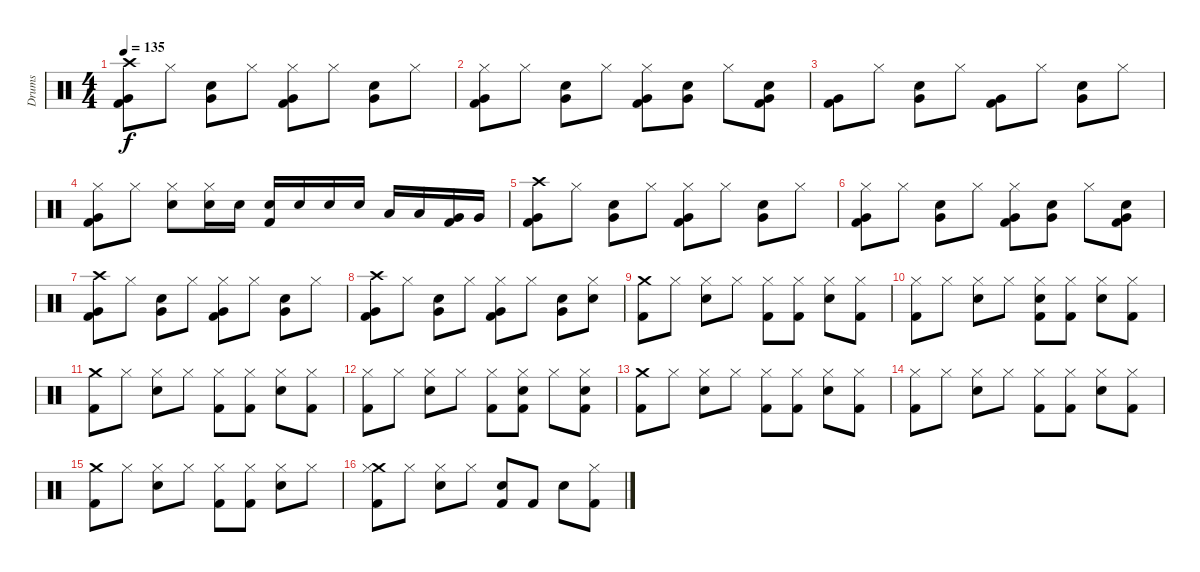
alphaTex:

\track ("Drums" "Drums") {instrument percussion}
\staff {score}
\articulation defaults
\ts (4 4)
\tempo 135
\clef neutral
\ks c
("Crash high (hit)" "Very Low Tom (hit)" "Kick (hit) 2").8{dy f} "Hi-Hat (closed)".8 ("Very Low Tom (hit)" "Snare (hit) 2").8 "Hi-Hat (closed)".8 ("Hi-Hat (closed)" "Very Low Tom (hit)" "Kick (hit) 2").8 "Hi-Hat (closed)".8 ("Very Low Tom (hit)" "Snare (hit) 2").8 "Hi-Hat (closed)".8 |
("Hi-Hat (closed)" "Very Low Tom (hit)" "Kick (hit) 2").8 "Hi-Hat (closed)".8 ("Very Low Tom (hit)" "Snare (hit) 2").8 "Hi-Hat (closed)".8 ("Hi-Hat (closed)" "Very Low Tom (hit)" "Kick (hit) 2").8 ("Very Low Tom (hit)" "Snare (hit) 2").8 "Hi-Hat (closed)".8 ("Very Low Tom (hit)" "Snare (hit) 2" "Kick (hit) 2").8 |
("Very Low Tom (hit)" "Kick (hit) 2").8 "Hi-Hat (closed)".8 ("Very Low Tom (hit)" "Snare (hit) 2").8 "Hi-Hat (closed)".8 ("Very Low Tom (hit)" "Kick (hit) 2").8 "Hi-Hat (closed)".8 ("Very Low Tom (hit)" "Snare (hit) 2").8 "Hi-Hat (closed)".8 |
("Hi-Hat (closed)" "Very Low Tom (hit)" "Kick (hit) 2").8 "Hi-Hat (closed)".8 ("Hi-Hat (closed)" "Snare (hit) 2").8 ("Hi-Hat (closed)" "Snare (hit) 2").16 "Snare (hit) 2".16 ("Snare (hit) 2" "Kick (hit) 2").16 "Snare (hit) 2".16 "Snare (hit) 2".16 "Snare (hit) 2".16 "Low Tom (hit)".16 "Low Tom (hit)".16 ("Very Low Tom (hit)" "Kick (hit) 2").16 "Very Low Tom (hit)".16 |
("Crash high (hit)" "Very Low Tom (hit)" "Kick (hit) 2").8 "Hi-Hat (closed)".8 ("Very Low Tom (hit)" "Snare (hit) 2").8 "Hi-Hat (closed)".8 ("Hi-Hat (closed)" "Very Low Tom (hit)" "Kick (hit) 2").8 "Hi-Hat (closed)".8 ("Very Low Tom (hit)" "Snare (hit) 2").8 "Hi-Hat (closed)".8 |
("Hi-Hat (closed)" "Very Low Tom (hit)" "Kick (hit) 2").8 "Hi-Hat (closed)".8 ("Very Low Tom (hit)" "Snare (hit) 2").8 "Hi-Hat (closed)".8 ("Hi-Hat (closed)" "Very Low Tom (hit)" "Kick (hit) 2").8 ("Very Low Tom (hit)" "Snare (hit) 2").8 "Hi-Hat (closed)".8 ("Very Low Tom (hit)" "Snare (hit) 2" "Kick (hit) 2").8 |
("Crash high (hit)" "Very Low Tom (hit)" "Kick (hit) 2").8 "Hi-Hat (closed)".8 ("Very Low Tom (hit)" "Snare (hit) 2").8 "Hi-Hat (closed)".8 ("Hi-Hat (closed)" "Very Low Tom (hit)" "Kick (hit) 2").8 "Hi-Hat (closed)".8 ("Very Low Tom (hit)" "Snare (hit) 2").8 "Hi-Hat (closed)".8 |
("Crash high (hit)" "Very Low Tom (hit)" "Kick (hit) 2").8 "Hi-Hat (closed)".8 ("Very Low Tom (hit)" "Snare (hit) 2").8 "Hi-Hat (closed)".8 ("Hi-Hat (closed)" "Very Low Tom (hit)" "Kick (hit) 2").8 "Hi-Hat (closed)".8 ("Very Low Tom (hit)" "Snare (hit) 2").8 ("Hi-Hat (closed)" "Snare (hit) 2").8 |
("Crash medium (hit)" "Kick (hit) 2").8 "Hi-Hat (closed)".8 ("Hi-Hat (closed)" "Snare (hit) 2").8 "Hi-Hat (closed)".8 ("Hi-Hat (closed)" "Kick (hit) 2").8 ("Hi-Hat (closed)" "Kick (hit) 2").8 ("Hi-Hat (closed)" "Snare (hit) 2").8 ("Hi-Hat (closed)" "Kick (hit) 2").8 |
("Hi-Hat (closed)" "Kick (hit) 2").8 "Hi-Hat (closed)".8 ("Hi-Hat (closed)" "Snare (hit) 2").8 "Hi-Hat (closed)".8 ("Hi-Hat (closed)" "Snare (hit) 2" "Kick (hit) 2").8 ("Hi-Hat (closed)" "Kick (hit) 2").8 ("Hi-Hat (closed)" "Snare (hit) 2").8 ("Hi-Hat (closed)" "Kick (hit) 2").8 |
("Crash medium (hit)" "Kick (hit) 2").8 "Hi-Hat (closed)".8 ("Hi-Hat (closed)" "Snare (hit) 2").8 "Hi-Hat (closed)".8 ("Hi-Hat (closed)" "Kick (hit) 2").8 ("Hi-Hat (closed)" "Kick (hit) 2").8 ("Hi-Hat (closed)" "Snare (hit) 2").8 ("Hi-Hat (closed)" "Kick (hit) 2").8 |
("Hi-Hat (closed)" "Kick (hit) 2").8 "Hi-Hat (closed)".8 ("Hi-Hat (closed)" "Snare (hit) 2").8 "Hi-Hat (closed)".8 ("Hi-Hat (closed)" "Kick (hit) 2").8 ("Hi-Hat (closed)" "Snare (hit) 2" "Kick (hit) 2").8 "Hi-Hat (closed)".8 ("Hi-Hat (closed)" "Snare (hit) 2" "Kick (hit) 2").8 |
("Crash medium (hit)" "Kick (hit) 2").8 "Hi-Hat (closed)".8 ("Hi-Hat (closed)" "Snare (hit) 2").8 "Hi-Hat (closed)".8 ("Hi-Hat (closed)" "Kick (hit) 2").8 ("Hi-Hat (closed)" "Kick (hit) 2").8 ("Hi-Hat (closed)" "Snare (hit) 2").8 ("Hi-Hat (closed)" "Kick (hit) 2").8 |
("Hi-Hat (closed)" "Kick (hit) 2").8 "Hi-Hat (closed)".8 ("Hi-Hat (closed)" "Snare (hit) 2").8 "Hi-Hat (closed)".8 ("Hi-Hat (closed)" "Kick (hit) 2").8 ("Hi-Hat (closed)" "Kick (hit) 2").8 ("Hi-Hat (closed)" "Snare (hit) 2").8 ("Hi-Hat (closed)" "Kick (hit) 2").8 |
("Crash medium (hit)" "Kick (hit) 2").8 "Hi-Hat (closed)".8 ("Hi-Hat (closed)" "Snare (hit) 2").8 "Hi-Hat (closed)".8 ("Hi-Hat (closed)" "Kick (hit) 2").8 ("Hi-Hat (closed)" "Kick (hit) 2").8 ("Hi-Hat (closed)" "Snare (hit) 2").8 "Hi-Hat (closed)".8 |
("Crash medium (hit)" "Hi-Hat (closed)" "Kick (hit) 2").8 "Hi-Hat (closed)".8 ("Hi-Hat (closed)" "Snare (hit) 2").8 "Hi-Hat (closed)".8 ("Snare (hit) 2" "Kick (hit) 2").8 "Kick (hit) 2".8 "Snare (hit) 2".8 ("Hi-Hat (closed)" "Kick (hit) 2").8
